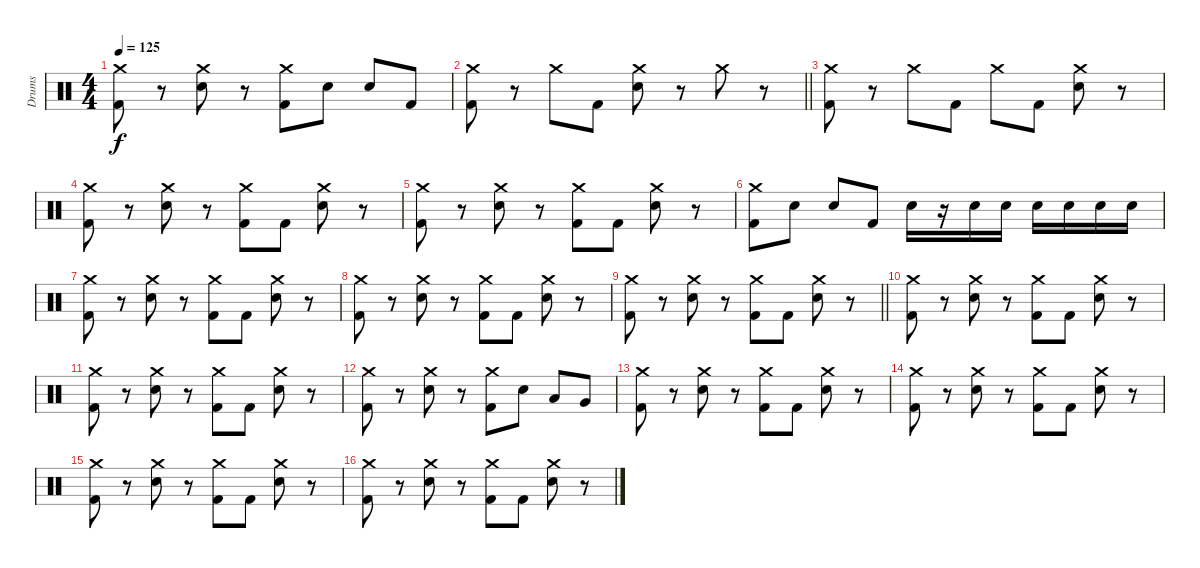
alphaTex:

\track ("Drums" "Drums") {instrument percussion}
\staff {score}
\articulation defaults
\ts (4 4)
\tempo 125
\clef neutral
\ks c
("Crash medium (hit)" "Kick (hit) 2").8{dy f} r.8 ("Crash medium (hit)" "Electric Snare (hit)").8 r.8 ("Crash medium (hit)" "Kick (hit) 2").8 "Electric Snare (hit)".8 "Electric Snare (hit)".8 "Kick (hit) 2".8 |
\barLineRight lightlight
("Crash medium (hit)" "Kick (hit) 2").8 r.8 "Crash medium (hit)".8 "Kick (hit) 2".8 ("Crash medium (hit)" "Electric Snare (hit)").8 r.8 "Crash medium (hit)".8 r.8 |
("Crash medium (hit)" "Kick (hit) 2").8 r.8 "Crash medium (hit)".8 "Kick (hit) 2".8 "Crash medium (hit)".8 "Kick (hit) 2".8 ("Crash medium (hit)" "Electric Snare (hit)").8 r.8 |
("Crash medium (hit)" "Kick (hit) 2").8 r.8 ("Crash medium (hit)" "Electric Snare (hit)").8 r.8 ("Crash medium (hit)" "Kick (hit) 2").8 "Kick (hit) 2".8 ("Crash medium (hit)" "Electric Snare (hit)").8 r.8 |
("Crash medium (hit)" "Kick (hit) 2").8 r.8 ("Crash medium (hit)" "Electric Snare (hit)").8 r.8 ("Crash medium (hit)" "Kick (hit) 2").8 "Kick (hit) 2".8 ("Crash medium (hit)" "Electric Snare (hit)").8 r.8 |
("Crash medium (hit)" "Kick (hit) 2").8 "Electric Snare (hit)".8 "Electric Snare (hit)".8 "Kick (hit) 2".8 "Electric Snare (hit)".16 r.16 "Electric Snare (hit)".16 "Electric Snare (hit)".16 "Electric Snare (hit)".16 "Electric Snare (hit)".16 "Electric Snare (hit)".16 "Electric Snare (hit)".16 |
("Crash medium (hit)" "Kick (hit) 2").8 r.8 ("Crash medium (hit)" "Electric Snare (hit)").8 r.8 ("Crash medium (hit)" "Kick (hit) 2").8 "Kick (hit) 2".8 ("Crash medium (hit)" "Electric Snare (hit)").8 r.8 |
("Crash medium (hit)" "Kick (hit) 2").8 r.8 ("Crash medium (hit)" "Electric Snare (hit)").8 r.8 ("Crash medium (hit)" "Kick (hit) 2").8 "Kick (hit) 2".8 ("Crash medium (hit)" "Electric Snare (hit)").8 r.8 |
\barLineRight lightlight
("Crash medium (hit)" "Kick (hit) 2").8 r.8 ("Crash medium (hit)" "Electric Snare (hit)").8 r.8 ("Crash medium (hit)" "Kick (hit) 2").8 "Kick (hit) 2".8 ("Crash medium (hit)" "Electric Snare (hit)").8 r.8 |
("Crash medium (hit)" "Kick (hit) 2").8 r.8 ("Crash medium (hit)" "Electric Snare (hit)").8 r.8 ("Crash medium (hit)" "Kick (hit) 2").8 "Kick (hit) 2".8 ("Crash medium (hit)" "Electric Snare (hit)").8 r.8 |
("Crash medium (hit)" "Kick (hit) 2").8 r.8 ("Crash medium (hit)" "Electric Snare (hit)").8 r.8 ("Crash medium (hit)" "Kick (hit) 2").8 "Kick (hit) 2".8 ("Crash medium (hit)" "Electric Snare (hit)").8 r.8 |
("Crash medium (hit)" "Kick (hit) 2").8 r.8 ("Crash medium (hit)" "Electric Snare (hit)").8 r.8 ("Crash medium (hit)" "Kick (hit) 2").8 "Electric Snare (hit)".8 "Low Tom (hit)".8 "Very Low Tom (hit)".8 |
("Crash medium (hit)" "Kick (hit) 2").8 r.8 ("Crash medium (hit)" "Electric Snare (hit)").8 r.8 ("Crash medium (hit)" "Kick (hit) 2").8 "Kick (hit) 2".8 ("Crash medium (hit)" "Electric Snare (hit)").8 r.8 |
("Crash medium (hit)" "Kick (hit) 2").8 r.8 ("Crash medium (hit)" "Electric Snare (hit)").8 r.8 ("Crash medium (hit)" "Kick (hit) 2").8 "Kick (hit) 2".8 ("Crash medium (hit)" "Electric Snare (hit)").8 r.8 |
("Crash medium (hit)" "Kick (hit) 2").8 r.8 ("Crash medium (hit)" "Electric Snare (hit)").8 r.8 ("Crash medium (hit)" "Kick (hit) 2").8 "Kick (hit) 2".8 ("Crash medium (hit)" "Electric Snare (hit)").8 r.8 |
("Crash medium (hit)" "Kick (hit) 2").8 r.8 ("Crash medium (hit)" "Electric Snare (hit)").8 r.8 ("Crash medium (hit)" "Kick (hit) 2").8 "Kick (hit) 2".8 ("Crash medium (hit)" "Electric Snare (hit)").8 r.8
